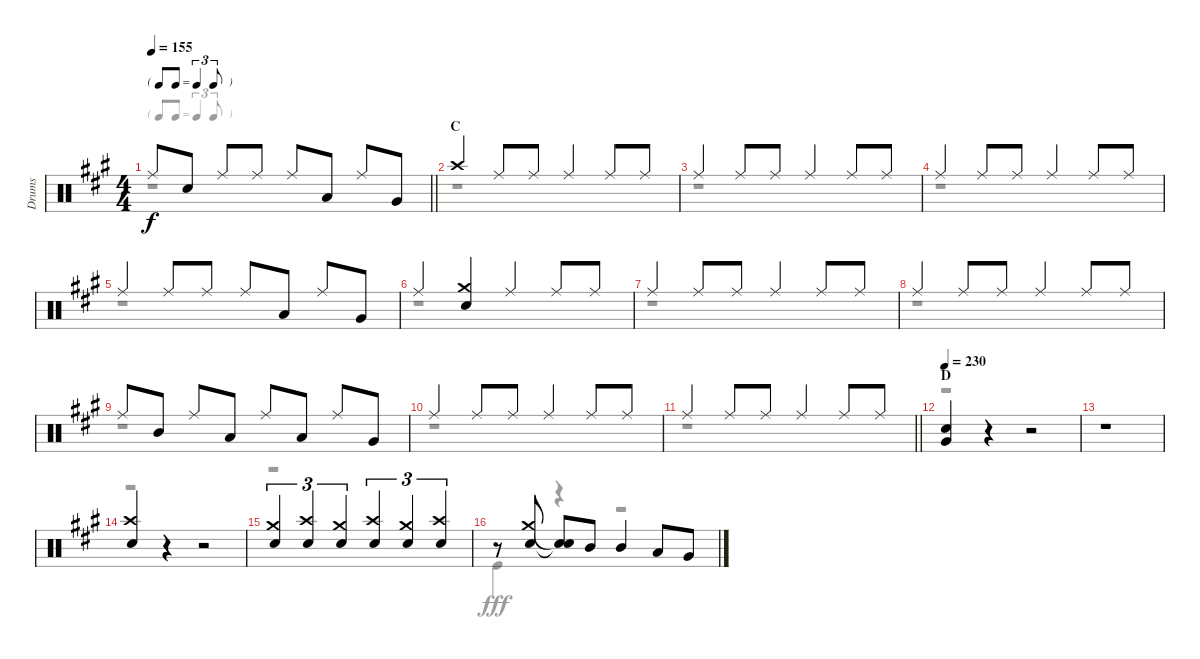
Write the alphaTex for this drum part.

\track ("Drums" "Drums") {instrument percussion}
\staff {score}
\articulation defaults
\voice
\ts (4 4)
\tf triplet8th
\tempo 155
\clef neutral
\barLineRight lightlight
\ks a "Ride (middle)".8{dy f} "Snare (hit) 2".8 "Ride (middle)".8 "Ride (middle)".8 "Ride (middle)".8 "Low Tom (hit)".8 "Ride (middle)".8 "Very Low Tom (hit)".8
|
\section ("" "C")
"Crash high (hit)".4 "Ride (middle)".8 "Ride (middle)".8 "Ride (middle)".4 "Ride (middle)".8 "Ride (middle)".8 |
"Ride (middle)".4 "Ride (middle)".8 "Ride (middle)".8 "Ride (middle)".4 "Ride (middle)".8 "Ride (middle)".8 |
"Ride (middle)".4 "Ride (middle)".8 "Ride (middle)".8 "Ride (middle)".4 "Ride (middle)".8 "Ride (middle)".8 |
"Ride (middle)".4 "Ride (middle)".8 "Ride (middle)".8 "Ride (middle)".8 "Low Tom (hit)".8 "Ride (middle)".8 "Very Low Tom (hit)".8 |
"Ride (middle)".4 ("Crash medium (hit)" "Snare (hit) 2").4 "Ride (middle)".4 "Ride (middle)".8 "Ride (middle)".8 |
"Ride (middle)".4 "Ride (middle)".8 "Ride (middle)".8 "Ride (middle)".4 "Ride (middle)".8 "Ride (middle)".8 |
"Ride (middle)".4 "Ride (middle)".8 "Ride (middle)".8 "Ride (middle)".4 "Ride (middle)".8 "Ride (middle)".8 |
"Ride (middle)".8 "Mid Tom (hit)".8 "Ride (middle)".8 "Low Tom (hit)".8 "Ride (middle)".8 "Low Tom (hit)".8 "Ride (middle)".8 "Very Low Tom (hit)".8 |
"Ride (middle)".4 "Ride (middle)".8 "Ride (middle)".8 "Ride (middle)".4 "Ride (middle)".8 "Ride (middle)".8 |
\barLineRight lightlight "Ride (middle)".4 "Ride (middle)".8 "Ride (middle)".8 "Ride (middle)".4 "Ride (middle)".8 "Ride (middle)".8
|
\section ("" "D")
\tempo 230
("Snare (hit) 2" "Very Low Tom (hit)").4 r.4 r.2 |
r.1 |
("Crash high (hit)" "Snare (hit) 2").4 r.4 r.2 |
("Crash medium (hit)" "Snare (hit) 2").4{tu (3 2)} ("Crash high (hit)" "Snare (hit) 2").4{tu (3 2)} ("Crash medium (hit)" "Snare (hit) 2").4{tu (3 2)} ("Crash high (hit)" "Snare (hit) 2").4{tu (3 2)} ("Crash medium (hit)" "Snare (hit) 2").4{tu (3 2)} ("Crash high (hit)" "Snare (hit) 2").4{tu (3 2)} |
r.8 ("Crash medium (hit)" "Snare (hit) 2").8 ("Snare (hit)"{t} "Snare (hit)"{t}).8 "Mid Tom (hit)".8 "Mid Tom (hit)".4 "Low Tom (hit)".8 "Very Low Tom (hit)".8
\voice
\clef neutral
\ottava regular
\simile none
\barLineRight lightlight
\ks a
r.1{dy fff} |
r.1 |
r.1 |
r.1 |
r.1 |
r.1 |
r.1 |
r.1 |
r.1 |
r.1 |
\barLineRight lightlight
r.1 |
r.1 |
r.1 |
r.1 |
r.1 |
"Kick (hit)".4 r.4 r.2
